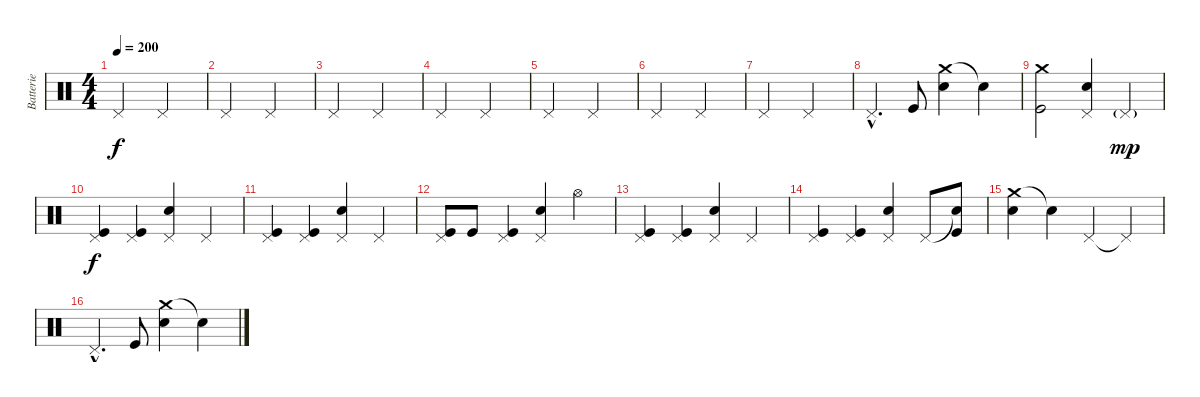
\track ("Batterie" "Batterie") {instrument percussion}
\staff {score}
\articulation defaults
\ts (4 4)
\tempo 200
\clef neutral
\ks c "Pedal Hi-Hat (hit)".2{dy f} "Pedal Hi-Hat (hit)".2
|
"Pedal Hi-Hat (hit)".2 "Pedal Hi-Hat (hit)".2 |
"Pedal Hi-Hat (hit)".2 "Pedal Hi-Hat (hit)".2 |
"Pedal Hi-Hat (hit)".2 "Pedal Hi-Hat (hit)".2 |
"Pedal Hi-Hat (hit)".2 "Pedal Hi-Hat (hit)".2 |
"Pedal Hi-Hat (hit)".2 "Pedal Hi-Hat (hit)".2 |
"Pedal Hi-Hat (hit)".2 "Pedal Hi-Hat (hit)".2 |
"Pedal Hi-Hat (hit)"{hac}.4{d} "Kick (hit)".8 ("Crash medium (hit)" "Snare (hit) 2").4 "Snare (hit)"{t}.4 |
("Crash medium (hit)" "Kick (hit)").2 ("Pedal Hi-Hat (hit)" "Snare (hit) 2").4 "Pedal Hi-Hat (hit)"{g}.4{dy mp} |
("Pedal Hi-Hat (hit)" "Kick (hit)").4{dy f} ("Pedal Hi-Hat (hit)" "Kick (hit)").4 ("Pedal Hi-Hat (hit)" "Snare (hit) 2").4 "Pedal Hi-Hat (hit)".4 |
("Pedal Hi-Hat (hit)" "Kick (hit)").4 ("Pedal Hi-Hat (hit)" "Kick (hit)").4 ("Pedal Hi-Hat (hit)" "Snare (hit) 2").4 "Pedal Hi-Hat (hit)".4 |
("Pedal Hi-Hat (hit)" "Kick (hit)").8 "Kick (hit)".8 ("Pedal Hi-Hat (hit)" "Kick (hit)").4 ("Pedal Hi-Hat (hit)" "Snare (hit) 2").4 "Hi-Hat (open)".4 |
("Pedal Hi-Hat (hit)" "Kick (hit)").4 ("Pedal Hi-Hat (hit)" "Kick (hit)").4 ("Pedal Hi-Hat (hit)" "Snare (hit) 2").4 "Pedal Hi-Hat (hit)".4 |
("Pedal Hi-Hat (hit)" "Kick (hit)").4 ("Pedal Hi-Hat (hit)" "Kick (hit)").4 ("Pedal Hi-Hat (hit)" "Snare (hit) 2").4 "Pedal Hi-Hat (hit)".8 ("Snare (hit)"{t} "Kick (hit)").8 |
("Crash medium (hit)" "Snare (hit) 2").4 "Snare (hit)"{t}.4 "Pedal Hi-Hat (hit)".4 "Pedal Hi-Hat (hit)"{t}.4 |
"Pedal Hi-Hat (hit)"{hac}.4{d} "Kick (hit)".8 ("Crash medium (hit)" "Snare (hit) 2").4 "Snare (hit)"{t}.4
